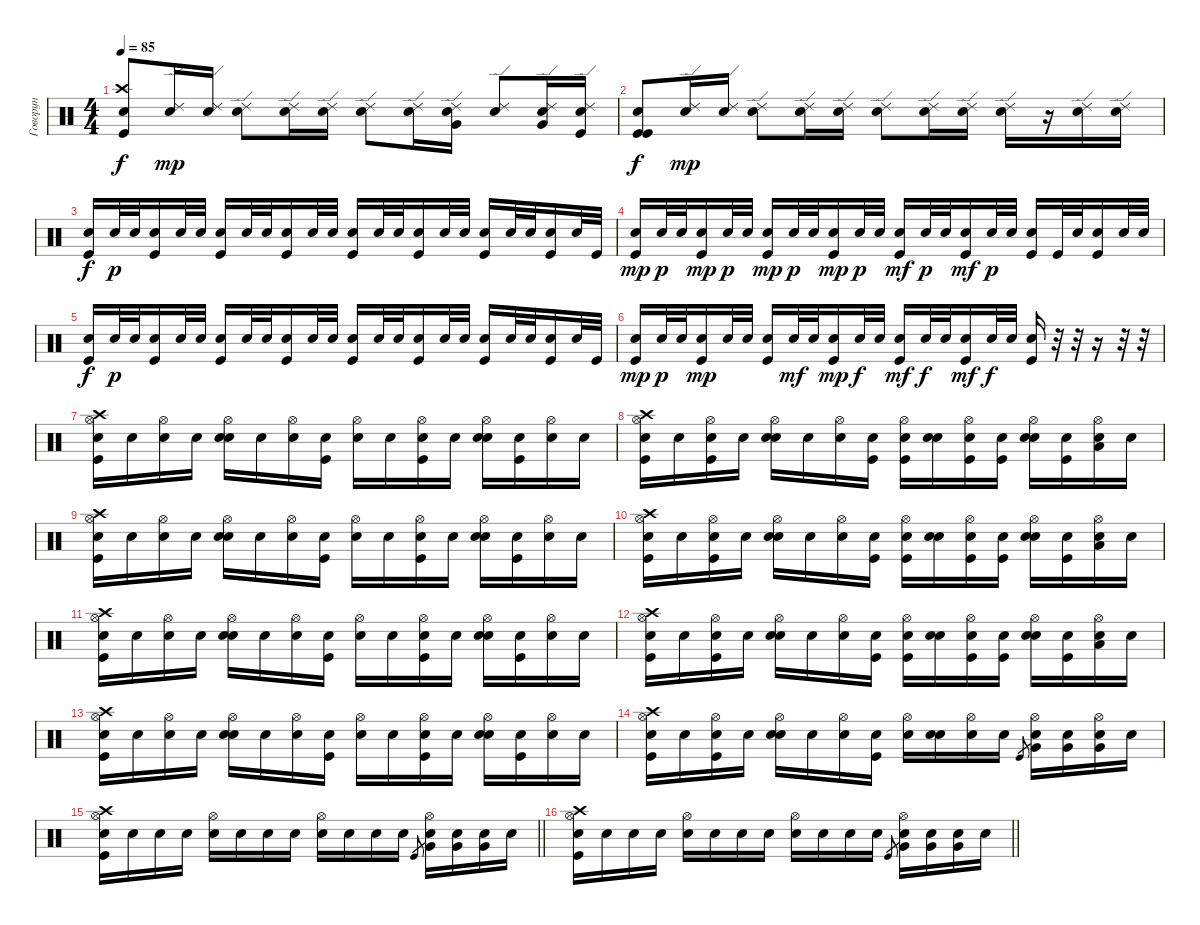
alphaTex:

\track ("Говорун" "Говорун") {instrument percussion}
\staff {score}
\articulation defaults
\ts (4 4)
\tempo 85
\clef neutral
\ks c
("Kick (hit)" "Crash high (hit)" "Snare (hit)"{x}).8{dy f} ("Ride (edge) 2" "Snare (hit)"{x}).16{dy mp} ("Ride (edge) 2" "Snare (hit)"{x}).16 ("Ride (edge) 2" "Snare (hit)"{x}).8 ("Ride (edge) 2" "Snare (hit)"{x}).16 ("Ride (edge) 2" "Snare (hit)"{x}).16 ("Ride (edge) 2" "Snare (hit)"{x}).8 ("Ride (edge) 2" "Snare (hit)"{x}).16 ("Very Low Tom (hit)" "Ride (edge) 2" "Snare (hit)"{x}).16 ("Ride (edge) 2" "Snare (hit)"{x}).8 ("Very Low Tom (hit)" "Ride (edge) 2" "Snare (hit)"{x}).16 ("Ride (edge) 2" "Kick (hit)" "Snare (hit)"{x}).16 |
("Kick (hit)" "Kick (hit)" "Snare (hit)"{x}).8{dy f} ("Ride (edge) 2" "Snare (hit)"{x}).16{dy mp} ("Ride (edge) 2" "Snare (hit)"{x}).16 ("Ride (edge) 2" "Snare (hit)"{x}).8 ("Ride (edge) 2" "Snare (hit)"{x}).16 ("Ride (edge) 2" "Snare (hit)"{x}).16 ("Ride (edge) 2" "Snare (hit)"{x}).8 ("Ride (edge) 2" "Snare (hit)"{x}).16 ("Ride (edge) 2" "Snare (hit)"{x}).16 ("Ride (edge) 2" "Snare (hit)"{x}).16 r.16 ("Ride (edge) 2" "Snare (hit)"{x}).16 ("Ride (edge) 2" "Snare (hit)"{x}).16 |
("Snare (hit) 2" "Kick (hit)").16{dy f} "Snare (hit) 2".32{dy p} "Snare (hit) 2".32 ("Snare (hit) 2" "Kick (hit)").16 "Snare (hit) 2".32 "Snare (hit) 2".32 ("Snare (hit) 2" "Kick (hit)").16 "Snare (hit) 2".32 "Snare (hit) 2".32 ("Snare (hit) 2" "Kick (hit)").16 "Snare (hit) 2".32 "Snare (hit) 2".32 ("Snare (hit) 2" "Kick (hit)").16 "Snare (hit) 2".32 "Snare (hit) 2".32 ("Snare (hit) 2" "Kick (hit)").16 "Snare (hit) 2".32 "Snare (hit) 2".32 ("Snare (hit) 2" "Kick (hit)").16 "Snare (hit) 2".32 "Snare (hit) 2".32 ("Snare (hit) 2" "Kick (hit)").16 "Snare (hit) 2".32 "Kick (hit)".32 |
("Snare (hit) 2" "Kick (hit)").16{dy mp} "Snare (hit) 2".32{dy p} "Snare (hit) 2".32 ("Snare (hit) 2" "Kick (hit)").16{dy mp} "Snare (hit) 2".32{dy p} "Snare (hit) 2".32 ("Snare (hit) 2" "Kick (hit)").16{dy mp} "Snare (hit) 2".32{dy p} "Snare (hit) 2".32 ("Snare (hit) 2" "Kick (hit)").16{dy mp} "Snare (hit) 2".32{dy p} "Snare (hit) 2".32 ("Snare (hit) 2" "Kick (hit)").16{dy mf} "Snare (hit) 2".32{dy p} "Snare (hit) 2".32 ("Snare (hit) 2" "Kick (hit)").16{dy mf} "Snare (hit) 2".32{dy p} "Snare (hit) 2".32 ("Snare (hit) 2" "Kick (hit)").16 "Kick (hit)".32 "Snare (hit) 2".32 ("Snare (hit) 2" "Kick (hit)").16 "Snare (hit) 2".32 "Snare (hit) 2".32 |
("Snare (hit) 2" "Kick (hit)").16{dy f} "Snare (hit) 2".32{dy p} "Snare (hit) 2".32 ("Snare (hit) 2" "Kick (hit)").16 "Snare (hit) 2".32 "Snare (hit) 2".32 ("Snare (hit) 2" "Kick (hit)").16 "Snare (hit) 2".32 "Snare (hit) 2".32 ("Snare (hit) 2" "Kick (hit)").16 "Snare (hit) 2".32 "Snare (hit) 2".32 ("Snare (hit) 2" "Kick (hit)").16 "Snare (hit) 2".32 "Snare (hit) 2".32 ("Snare (hit) 2" "Kick (hit)").16 "Snare (hit) 2".32 "Snare (hit) 2".32 ("Snare (hit) 2" "Kick (hit)").16 "Snare (hit) 2".32 "Snare (hit) 2".32 ("Snare (hit) 2" "Kick (hit)").16 "Snare (hit) 2".32 "Kick (hit)".32 |
("Snare (hit) 2" "Kick (hit)").16{dy mp} "Snare (hit) 2".32{dy p} "Snare (hit) 2".32 ("Snare (hit) 2" "Kick (hit)").16{dy mp} "Snare (hit) 2".32 "Snare (hit) 2".32 ("Snare (hit) 2" "Kick (hit)").16 "Snare (hit) 2".32{dy mf} "Snare (hit) 2".32 ("Snare (hit) 2" "Kick (hit)").16{dy mp} "Snare (hit) 2".32{dy f} "Snare (hit) 2".32 ("Snare (hit) 2" "Kick (hit)").16{dy mf} "Snare (hit) 2".32{dy f} "Snare (hit) 2".32 ("Snare (hit) 2" "Kick (hit)").16{dy mf} "Snare (hit) 2".32{dy f} "Snare (hit) 2".32 ("Snare (hit) 2" "Kick (hit)").16 r.32 r.32 r.16 r.32 r.32 |
("Kick (hit)" "Hi-Hat (open)" "Crash high (hit)" "Snare (hit)"{x}).16 "Snare (hit)"{x}.16 ("Hi-Hat (open)" "Snare (hit)"{x}).16 "Snare (hit)"{x}.16 ("Snare (hit) 2" "Hi-Hat (open)" "Snare (hit)"{x}).16 "Snare (hit)"{x}.16 ("Hi-Hat (open)" "Snare (hit)"{x}).16 ("Kick (hit)" "Snare (hit)"{x}).16 ("Hi-Hat (open)" "Snare (hit)"{x}).16 "Snare (hit)"{x}.16 ("Kick (hit)" "Hi-Hat (open)" "Snare (hit)"{x}).16 "Snare (hit)"{x}.16 ("Snare (hit) 2" "Hi-Hat (open)" "Snare (hit)"{x}).16 ("Kick (hit)" "Snare (hit)"{x}).16 ("Hi-Hat (open)" "Snare (hit)"{x}).16 "Snare (hit)"{x}.16 |
("Kick (hit)" "Hi-Hat (open)" "Crash high (hit)" "Snare (hit)"{x}).16 "Snare (hit)"{x}.16 ("Kick (hit)" "Hi-Hat (open)" "Snare (hit)"{x}).16 "Snare (hit)"{x}.16 ("Snare (hit) 2" "Hi-Hat (open)" "Snare (hit)"{x}).16 "Snare (hit)"{x}.16 ("Hi-Hat (open)" "Snare (hit)"{x}).16 ("Kick (hit)" "Snare (hit)"{x}).16 ("Kick (hit)" "Hi-Hat (open)" "Snare (hit)"{x}).16 ("Snare (hit) 2" "Snare (hit)"{x}).16 ("Kick (hit)" "Hi-Hat (open)" "Snare (hit)"{x}).16 ("Kick (hit)" "Snare (hit)"{x}).16 ("Snare (hit) 2" "Hi-Hat (open)" "Snare (hit)"{x}).16 ("Kick (hit)" "Snare (hit)"{x}).16 ("Low Tom (hit)" "Hi-Hat (open)" "Snare (hit)"{x}).16 "Snare (hit)"{x}.16 |
("Kick (hit)" "Hi-Hat (open)" "Crash high (hit)" "Snare (hit)"{x}).16 "Snare (hit)"{x}.16 ("Hi-Hat (open)" "Snare (hit)"{x}).16 "Snare (hit)"{x}.16 ("Snare (hit) 2" "Hi-Hat (open)" "Snare (hit)"{x}).16 "Snare (hit)"{x}.16 ("Hi-Hat (open)" "Snare (hit)"{x}).16 ("Kick (hit)" "Snare (hit)"{x}).16 ("Hi-Hat (open)" "Snare (hit)"{x}).16 "Snare (hit)"{x}.16 ("Kick (hit)" "Hi-Hat (open)" "Snare (hit)"{x}).16 "Snare (hit)"{x}.16 ("Snare (hit) 2" "Hi-Hat (open)" "Snare (hit)"{x}).16 ("Kick (hit)" "Snare (hit)"{x}).16 ("Hi-Hat (open)" "Snare (hit)"{x}).16 "Snare (hit)"{x}.16 |
("Kick (hit)" "Hi-Hat (open)" "Crash high (hit)" "Snare (hit)"{x}).16 "Snare (hit)"{x}.16 ("Kick (hit)" "Hi-Hat (open)" "Snare (hit)"{x}).16 "Snare (hit)"{x}.16 ("Snare (hit) 2" "Hi-Hat (open)" "Snare (hit)"{x}).16 "Snare (hit)"{x}.16 ("Hi-Hat (open)" "Snare (hit)"{x}).16 ("Kick (hit)" "Snare (hit)"{x}).16 ("Kick (hit)" "Hi-Hat (open)" "Snare (hit)"{x}).16 ("Snare (hit) 2" "Snare (hit)"{x}).16 ("Kick (hit)" "Hi-Hat (open)" "Snare (hit)"{x}).16 ("Kick (hit)" "Snare (hit)"{x}).16 ("Snare (hit) 2" "Hi-Hat (open)" "Snare (hit)"{x}).16 ("Kick (hit)" "Snare (hit)"{x}).16 ("Low Tom (hit)" "Hi-Hat (open)" "Snare (hit)"{x}).16 "Snare (hit)"{x}.16 |
("Kick (hit)" "Hi-Hat (open)" "Crash high (hit)" "Snare (hit)"{x}).16 "Snare (hit)"{x}.16 ("Hi-Hat (open)" "Snare (hit)"{x}).16 "Snare (hit)"{x}.16 ("Snare (hit) 2" "Hi-Hat (open)" "Snare (hit)"{x}).16 "Snare (hit)"{x}.16 ("Hi-Hat (open)" "Snare (hit)"{x}).16 ("Kick (hit)" "Snare (hit)"{x}).16 ("Hi-Hat (open)" "Snare (hit)"{x}).16 "Snare (hit)"{x}.16 ("Kick (hit)" "Hi-Hat (open)" "Snare (hit)"{x}).16 "Snare (hit)"{x}.16 ("Snare (hit) 2" "Hi-Hat (open)" "Snare (hit)"{x}).16 ("Kick (hit)" "Snare (hit)"{x}).16 ("Hi-Hat (open)" "Snare (hit)"{x}).16 "Snare (hit)"{x}.16 |
("Kick (hit)" "Hi-Hat (open)" "Crash high (hit)" "Snare (hit)"{x}).16 "Snare (hit)"{x}.16 ("Kick (hit)" "Hi-Hat (open)" "Snare (hit)"{x}).16 "Snare (hit)"{x}.16 ("Snare (hit) 2" "Hi-Hat (open)" "Snare (hit)"{x}).16 "Snare (hit)"{x}.16 ("Hi-Hat (open)" "Snare (hit)"{x}).16 ("Kick (hit)" "Snare (hit)"{x}).16 ("Kick (hit)" "Hi-Hat (open)" "Snare (hit)"{x}).16 ("Snare (hit) 2" "Snare (hit)"{x}).16 ("Kick (hit)" "Hi-Hat (open)" "Snare (hit)"{x}).16 ("Kick (hit)" "Snare (hit)"{x}).16 ("Snare (hit) 2" "Hi-Hat (open)" "Snare (hit)"{x}).16 ("Kick (hit)" "Snare (hit)"{x}).16 ("Low Tom (hit)" "Hi-Hat (open)" "Snare (hit)"{x}).16 "Snare (hit)"{x}.16 |
("Kick (hit)" "Hi-Hat (open)" "Crash high (hit)" "Snare (hit)"{x}).16 "Snare (hit)"{x}.16 ("Hi-Hat (open)" "Snare (hit)"{x}).16 "Snare (hit)"{x}.16 ("Snare (hit) 2" "Hi-Hat (open)" "Snare (hit)"{x}).16 "Snare (hit)"{x}.16 ("Hi-Hat (open)" "Snare (hit)"{x}).16 ("Kick (hit)" "Snare (hit)"{x}).16 ("Hi-Hat (open)" "Snare (hit)"{x}).16 "Snare (hit)"{x}.16 ("Kick (hit)" "Hi-Hat (open)" "Snare (hit)"{x}).16 "Snare (hit)"{x}.16 ("Snare (hit) 2" "Hi-Hat (open)" "Snare (hit)"{x}).16 ("Kick (hit)" "Snare (hit)"{x}).16 ("Hi-Hat (open)" "Snare (hit)"{x}).16 "Snare (hit)"{x}.16 |
("Kick (hit)" "Hi-Hat (open)" "Crash high (hit)" "Snare (hit)"{x}).16 "Snare (hit)"{x}.16 ("Kick (hit)" "Hi-Hat (open)" "Snare (hit)"{x}).16 "Snare (hit)"{x}.16 ("Snare (hit) 2" "Hi-Hat (open)" "Snare (hit)"{x}).16 "Snare (hit)"{x}.16 ("Hi-Hat (open)" "Snare (hit)"{x}).16 ("Kick (hit)" "Snare (hit)"{x}).16 ("Hi-Hat (open)" "Snare (hit)"{x}).16 ("Snare (hit) 2" "Snare (hit)"{x}).16 ("Hi-Hat (open)" "Snare (hit)"{x}).16 "Snare (hit)"{x}.16 "Kick (hit)".8{gr} ("Very Low Tom (hit)" "Hi-Hat (open)" "Snare (hit)"{x}).16 ("Very Low Tom (hit)" "Snare (hit)"{x}).16 ("Very Low Tom (hit)" "Hi-Hat (open)" "Snare (hit)"{x}).16 "Snare (hit)"{x}.16 |
\barLineRight lightlight
("Kick (hit)" "Hi-Hat (open)" "Crash high (hit)" "Snare (hit)"{x}).16 "Snare (hit)"{x}.16 "Snare (hit)"{x}.16 "Snare (hit)"{x}.16 ("Hi-Hat (open)" "Snare (hit)"{x}).16 "Snare (hit)"{x}.16 "Snare (hit)"{x}.16 "Snare (hit)"{x}.16 ("Hi-Hat (open)" "Snare (hit)"{x}).16 "Snare (hit)"{x}.16 "Snare (hit)"{x}.16 "Snare (hit)"{x}.16 "Kick (hit)".8{gr} ("Very Low Tom (hit)" "Hi-Hat (open)" "Snare (hit)"{x}).16 ("Very Low Tom (hit)" "Snare (hit)"{x}).16 ("Very Low Tom (hit)" "Snare (hit)"{x}).16 "Snare (hit)"{x}.16 |
\barLineRight lightlight
("Kick (hit)" "Hi-Hat (open)" "Crash high (hit)" "Snare (hit)"{x}).16 "Snare (hit)"{x}.16 "Snare (hit)"{x}.16 "Snare (hit)"{x}.16 ("Hi-Hat (open)" "Snare (hit)"{x}).16 "Snare (hit)"{x}.16 "Snare (hit)"{x}.16 "Snare (hit)"{x}.16 ("Hi-Hat (open)" "Snare (hit)"{x}).16 "Snare (hit)"{x}.16 "Snare (hit)"{x}.16 "Snare (hit)"{x}.16 "Kick (hit)".8{gr} ("Very Low Tom (hit)" "Hi-Hat (open)" "Snare (hit)"{x}).16 ("Very Low Tom (hit)" "Snare (hit)"{x}).16 ("Very Low Tom (hit)" "Snare (hit)"{x}).16 "Snare (hit)"{x}.16
